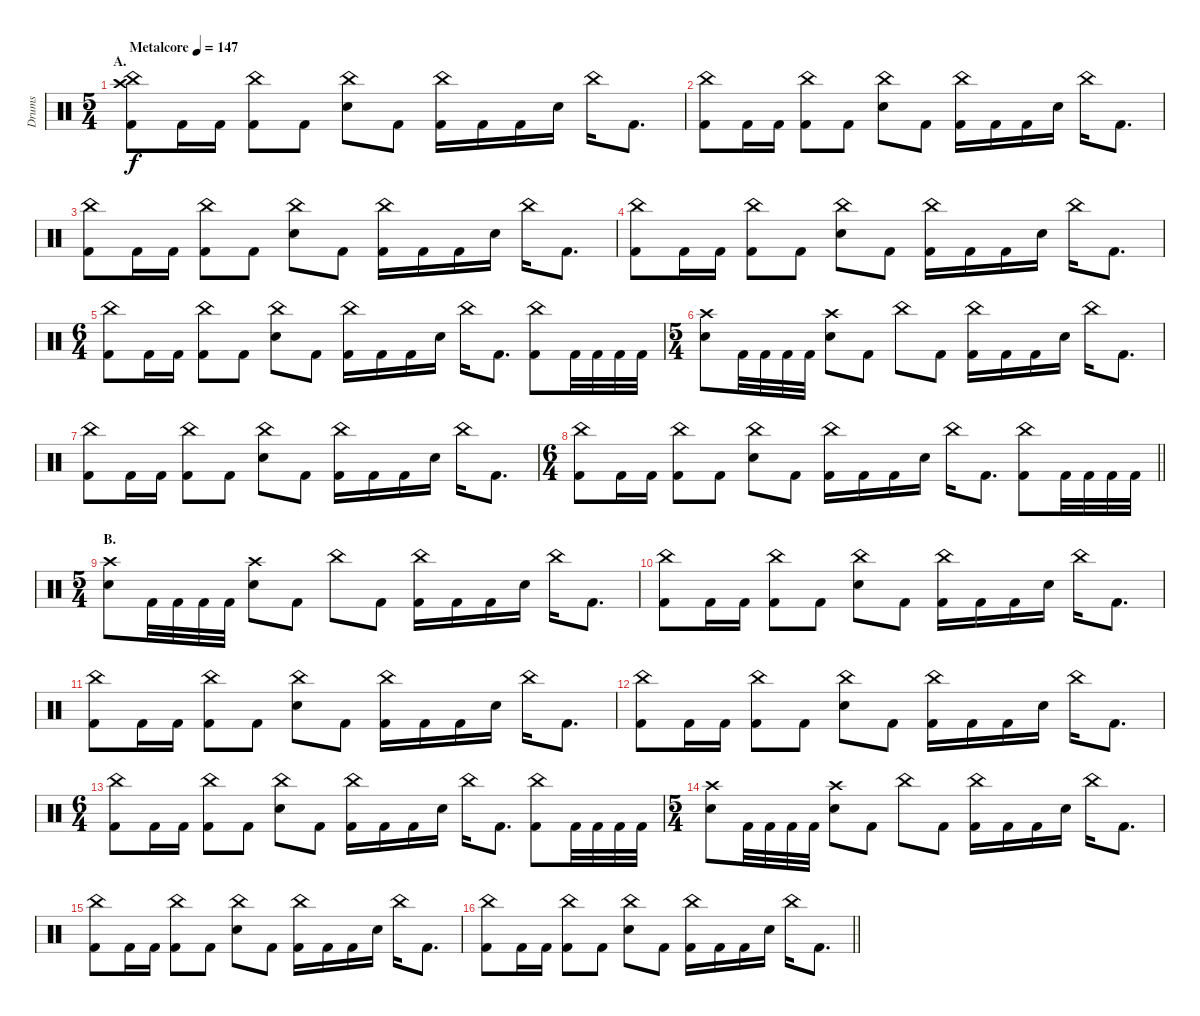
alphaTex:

\track ("Drums" "Drums") {instrument percussion}
\staff {score}
\articulation defaults
\ts (5 4)
\section ("" "A.")
\tempo (147 "Metalcore")
\clef neutral
\ks c
("China (hit)" "Crash high (hit)" "Kick (hit) 2").8{dy f} "Kick (hit) 2".16 "Kick (hit) 2".16 ("China (hit)" "Kick (hit) 2").8 "Kick (hit) 2".8 ("China (hit)" "Electric Snare (hit)").8 "Kick (hit) 2".8 ("China (hit)" "Kick (hit) 2").16 "Kick (hit) 2".16 "Kick (hit) 2".16 "Electric Snare (hit)".16 "China (hit)".16 "Kick (hit) 2".8{d} |
("China (hit)" "Kick (hit) 2").8 "Kick (hit) 2".16 "Kick (hit) 2".16 ("China (hit)" "Kick (hit) 2").8 "Kick (hit) 2".8 ("China (hit)" "Electric Snare (hit)").8 "Kick (hit) 2".8 ("China (hit)" "Kick (hit) 2").16 "Kick (hit) 2".16 "Kick (hit) 2".16 "Electric Snare (hit)".16 "China (hit)".16 "Kick (hit) 2".8{d} |
("China (hit)" "Kick (hit) 2").8 "Kick (hit) 2".16 "Kick (hit) 2".16 ("China (hit)" "Kick (hit) 2").8 "Kick (hit) 2".8 ("China (hit)" "Electric Snare (hit)").8 "Kick (hit) 2".8 ("China (hit)" "Kick (hit) 2").16 "Kick (hit) 2".16 "Kick (hit) 2".16 "Electric Snare (hit)".16 "China (hit)".16 "Kick (hit) 2".8{d} |
("China (hit)" "Kick (hit) 2").8 "Kick (hit) 2".16 "Kick (hit) 2".16 ("China (hit)" "Kick (hit) 2").8 "Kick (hit) 2".8 ("China (hit)" "Electric Snare (hit)").8 "Kick (hit) 2".8 ("China (hit)" "Kick (hit) 2").16 "Kick (hit) 2".16 "Kick (hit) 2".16 "Electric Snare (hit)".16 "China (hit)".16 "Kick (hit) 2".8{d} |
\ts (6 4)
("China (hit)" "Kick (hit) 2").8 "Kick (hit) 2".16 "Kick (hit) 2".16 ("China (hit)" "Kick (hit) 2").8 "Kick (hit) 2".8 ("China (hit)" "Electric Snare (hit)").8 "Kick (hit) 2".8 ("China (hit)" "Kick (hit) 2").16 "Kick (hit) 2".16 "Kick (hit) 2".16 "Electric Snare (hit)".16 "China (hit)".16 "Kick (hit) 2".8{d} ("China (hit)" "Kick (hit) 2").8 "Kick (hit) 2".32 "Kick (hit) 2".32 "Kick (hit) 2".32 "Kick (hit) 2".32 |
\ts (5 4)
("Crash high (hit)" "Electric Snare (hit)").8 "Kick (hit) 2".32 "Kick (hit) 2".32 "Kick (hit) 2".32 "Kick (hit) 2".32 ("Crash high (hit)" "Electric Snare (hit)").8 "Kick (hit) 2".8 "China (hit)".8 "Kick (hit) 2".8 ("China (hit)" "Kick (hit) 2").16 "Kick (hit) 2".16 "Kick (hit) 2".16 "Electric Snare (hit)".16 "China (hit)".16 "Kick (hit) 2".8{d} |
("China (hit)" "Kick (hit) 2").8 "Kick (hit) 2".16 "Kick (hit) 2".16 ("China (hit)" "Kick (hit) 2").8 "Kick (hit) 2".8 ("China (hit)" "Electric Snare (hit)").8 "Kick (hit) 2".8 ("China (hit)" "Kick (hit) 2").16 "Kick (hit) 2".16 "Kick (hit) 2".16 "Electric Snare (hit)".16 "China (hit)".16 "Kick (hit) 2".8{d} |
\ts (6 4)
\barLineRight lightlight
("China (hit)" "Kick (hit) 2").8 "Kick (hit) 2".16 "Kick (hit) 2".16 ("China (hit)" "Kick (hit) 2").8 "Kick (hit) 2".8 ("China (hit)" "Electric Snare (hit)").8 "Kick (hit) 2".8 ("China (hit)" "Kick (hit) 2").16 "Kick (hit) 2".16 "Kick (hit) 2".16 "Electric Snare (hit)".16 "China (hit)".16 "Kick (hit) 2".8{d} ("China (hit)" "Kick (hit) 2").8 "Kick (hit) 2".32 "Kick (hit) 2".32 "Kick (hit) 2".32 "Kick (hit) 2".32 |
\ts (5 4)
\section ("" "B.")
("Crash high (hit)" "Electric Snare (hit)").8 "Kick (hit) 2".32 "Kick (hit) 2".32 "Kick (hit) 2".32 "Kick (hit) 2".32 ("Crash high (hit)" "Electric Snare (hit)").8 "Kick (hit) 2".8 "China (hit)".8 "Kick (hit) 2".8 ("China (hit)" "Kick (hit) 2").16 "Kick (hit) 2".16 "Kick (hit) 2".16 "Electric Snare (hit)".16 "China (hit)".16 "Kick (hit) 2".8{d} |
("China (hit)" "Kick (hit) 2").8 "Kick (hit) 2".16 "Kick (hit) 2".16 ("China (hit)" "Kick (hit) 2").8 "Kick (hit) 2".8 ("China (hit)" "Electric Snare (hit)").8 "Kick (hit) 2".8 ("China (hit)" "Kick (hit) 2").16 "Kick (hit) 2".16 "Kick (hit) 2".16 "Electric Snare (hit)".16 "China (hit)".16 "Kick (hit) 2".8{d} |
("China (hit)" "Kick (hit) 2").8 "Kick (hit) 2".16 "Kick (hit) 2".16 ("China (hit)" "Kick (hit) 2").8 "Kick (hit) 2".8 ("China (hit)" "Electric Snare (hit)").8 "Kick (hit) 2".8 ("China (hit)" "Kick (hit) 2").16 "Kick (hit) 2".16 "Kick (hit) 2".16 "Electric Snare (hit)".16 "China (hit)".16 "Kick (hit) 2".8{d} |
("China (hit)" "Kick (hit) 2").8 "Kick (hit) 2".16 "Kick (hit) 2".16 ("China (hit)" "Kick (hit) 2").8 "Kick (hit) 2".8 ("China (hit)" "Electric Snare (hit)").8 "Kick (hit) 2".8 ("China (hit)" "Kick (hit) 2").16 "Kick (hit) 2".16 "Kick (hit) 2".16 "Electric Snare (hit)".16 "China (hit)".16 "Kick (hit) 2".8{d} |
\ts (6 4)
("China (hit)" "Kick (hit) 2").8 "Kick (hit) 2".16 "Kick (hit) 2".16 ("China (hit)" "Kick (hit) 2").8 "Kick (hit) 2".8 ("China (hit)" "Electric Snare (hit)").8 "Kick (hit) 2".8 ("China (hit)" "Kick (hit) 2").16 "Kick (hit) 2".16 "Kick (hit) 2".16 "Electric Snare (hit)".16 "China (hit)".16 "Kick (hit) 2".8{d} ("China (hit)" "Kick (hit) 2").8 "Kick (hit) 2".32 "Kick (hit) 2".32 "Kick (hit) 2".32 "Kick (hit) 2".32 |
\ts (5 4)
("Crash high (hit)" "Electric Snare (hit)").8 "Kick (hit) 2".32 "Kick (hit) 2".32 "Kick (hit) 2".32 "Kick (hit) 2".32 ("Crash high (hit)" "Electric Snare (hit)").8 "Kick (hit) 2".8 "China (hit)".8 "Kick (hit) 2".8 ("China (hit)" "Kick (hit) 2").16 "Kick (hit) 2".16 "Kick (hit) 2".16 "Electric Snare (hit)".16 "China (hit)".16 "Kick (hit) 2".8{d} |
("China (hit)" "Kick (hit) 2").8 "Kick (hit) 2".16 "Kick (hit) 2".16 ("China (hit)" "Kick (hit) 2").8 "Kick (hit) 2".8 ("China (hit)" "Electric Snare (hit)").8 "Kick (hit) 2".8 ("China (hit)" "Kick (hit) 2").16 "Kick (hit) 2".16 "Kick (hit) 2".16 "Electric Snare (hit)".16 "China (hit)".16 "Kick (hit) 2".8{d} |
\barLineRight lightlight
("China (hit)" "Kick (hit) 2").8 "Kick (hit) 2".16 "Kick (hit) 2".16 ("China (hit)" "Kick (hit) 2").8 "Kick (hit) 2".8 ("China (hit)" "Electric Snare (hit)").8 "Kick (hit) 2".8 ("China (hit)" "Kick (hit) 2").16 "Kick (hit) 2".16 "Kick (hit) 2".16 "Electric Snare (hit)".16 "China (hit)".16 "Kick (hit) 2".8{d}
